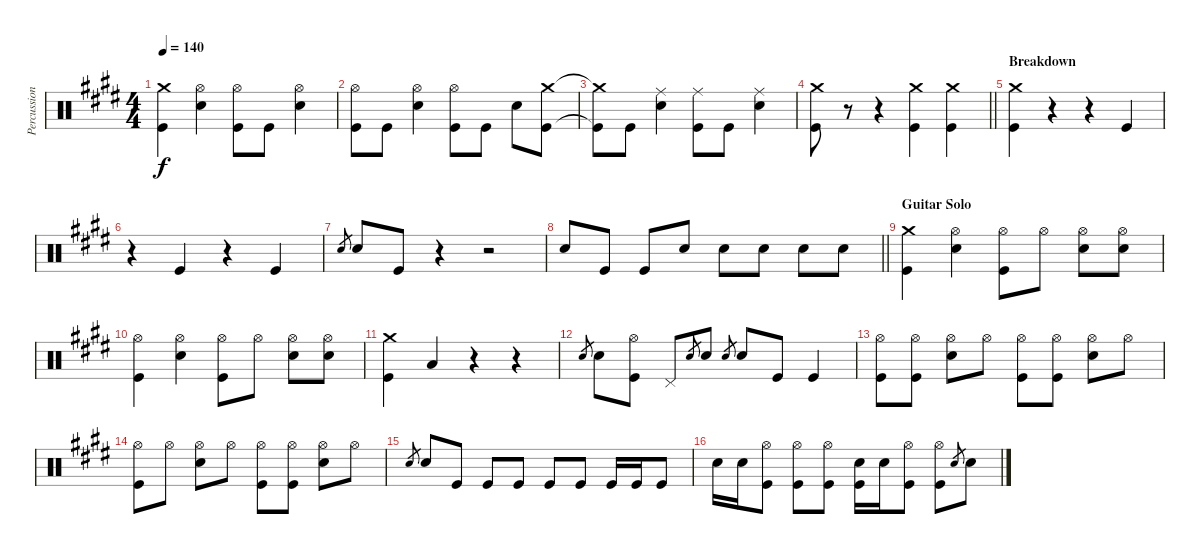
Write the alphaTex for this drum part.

\track ("Percussion" "Percussion") {instrument percussion}
\staff {score}
\articulation defaults
\ts (4 4)
\tempo 140
\clef neutral
\ks e
("Crash medium (hit)" "Kick (hit)").4{dy f} ("Hi-Hat (open)" "Snare (hit) 2").4 ("Hi-Hat (open)" "Kick (hit)").8 "Kick (hit)".8 ("Hi-Hat (open)" "Snare (hit) 2").4 |
("Hi-Hat (open)" "Kick (hit)").8 "Kick (hit)".8 ("Hi-Hat (open)" "Snare (hit) 2").4 ("Hi-Hat (open)" "Kick (hit)").8 "Kick (hit)".8 "Snare (hit) 2".8 ("Crash medium (hit)" "Kick (hit)").8 |
("Crash medium (hit)"{t} "Kick (hit)"{t}).8 "Kick (hit)".8 ("Ride (middle)" "Snare (hit) 2").4 ("Ride (middle)" "Kick (hit)").8 "Kick (hit)".8 ("Ride (middle)" "Snare (hit) 2").4 |
\barLineRight lightlight
("Crash medium (hit)" "Kick (hit)").8 r.8 r.4 ("Crash medium (hit)" "Kick (hit)").4 ("Crash medium (hit)" "Kick (hit)").4 |
\section ("" "Breakdown")
("Crash medium (hit)" "Kick (hit)").4 r.4 r.4 "Kick (hit)".4 |
r.4 "Kick (hit)".4 r.4 "Kick (hit)".4 |
"Snare (hit) 2".8{gr} "Snare (hit) 2".8 "Kick (hit)".8 r.4 r.2 |
\barLineRight lightlight "Snare (hit) 2".8 "Kick (hit)".8 "Kick (hit)".8 "Snare (hit) 2".8 "Snare (hit) 2".8 "Snare (hit) 2".8 "Snare (hit) 2".8 "Snare (hit) 2".8
|
\section ("" "Guitar Solo")
("Crash medium (hit)" "Kick (hit)").4 ("Hi-Hat (open)" "Snare (hit) 2").4 ("Hi-Hat (open)" "Kick (hit)").8 "Hi-Hat (open)".8 ("Hi-Hat (open)" "Snare (hit) 2").8 ("Hi-Hat (open)" "Snare (hit) 2").8 |
("Hi-Hat (open)" "Kick (hit)").4 ("Hi-Hat (open)" "Snare (hit) 2").4 ("Hi-Hat (open)" "Kick (hit)").8 "Hi-Hat (open)".8 ("Hi-Hat (open)" "Snare (hit) 2").8 ("Hi-Hat (open)" "Snare (hit) 2").8 |
("Crash medium (hit)" "Kick (hit)").4 "Low Floor Tom (hit)".4 r.4 r.4 |
"Snare (hit) 2".8{gr} "Snare (hit) 2".8 ("Hi-Hat (open)" "Kick (hit)").8 "Pedal Hi-Hat (hit)".8 "Snare (hit) 2".8{gr} "Snare (hit) 2".8 "Snare (hit) 2".8{gr} "Snare (hit) 2".8 "Kick (hit)".8 "Kick (hit)".4 |
("Hi-Hat (open)" "Kick (hit)").8 ("Hi-Hat (open)" "Kick (hit)").8 ("Hi-Hat (open)" "Snare (hit) 2").8 "Hi-Hat (open)".8 ("Hi-Hat (open)" "Kick (hit)").8 ("Hi-Hat (open)" "Kick (hit)").8 ("Hi-Hat (open)" "Snare (hit) 2").8 "Hi-Hat (open)".8 |
("Hi-Hat (open)" "Kick (hit)").8 "Hi-Hat (open)".8 ("Hi-Hat (open)" "Snare (hit) 2").8 "Hi-Hat (open)".8 ("Hi-Hat (open)" "Kick (hit)").8 ("Hi-Hat (open)" "Kick (hit)").8 ("Hi-Hat (open)" "Snare (hit) 2").8 "Hi-Hat (open)".8 |
"Snare (hit) 2".8{gr} "Snare (hit) 2".8 "Kick (hit)".8 "Kick (hit)".8 "Kick (hit)".8 "Kick (hit)".8 "Kick (hit)".8 "Kick (hit)".16 "Kick (hit)".16 "Kick (hit)".8 |
"Snare (hit) 2".16 "Snare (hit) 2".16 ("Hi-Hat (open)" "Kick (hit)").8 ("Hi-Hat (open)" "Kick (hit)").8 ("Hi-Hat (open)" "Kick (hit)").8 ("Snare (hit) 2" "Kick (hit)").16 "Snare (hit) 2".16 ("Hi-Hat (open)" "Kick (hit)").8 ("Hi-Hat (open)" "Kick (hit)").8 "Snare (hit) 2".8{gr} "Snare (hit) 2".8
